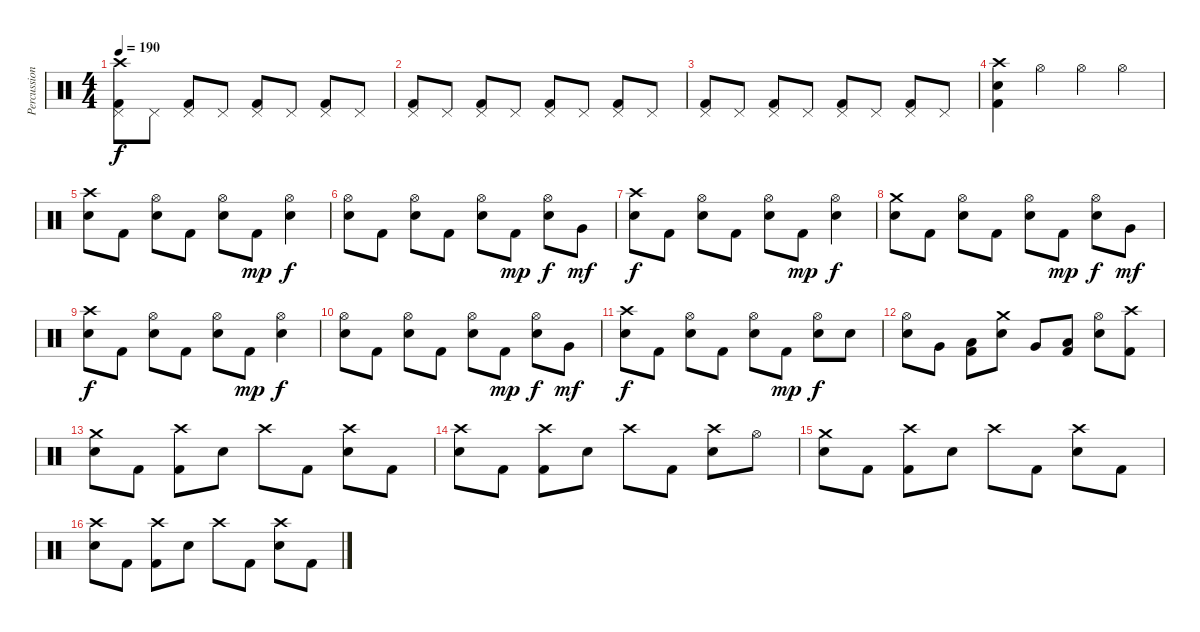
\track ("Percussions" "Percussion") {instrument percussion}
\staff {score}
\articulation defaults
\ts (4 4)
\tempo 190
\clef neutral
\ks c
("Crash high (hit)" "Pedal Hi-Hat (hit)" "Kick (hit) 2").8{dy f} "Pedal Hi-Hat (hit)".8 ("Pedal Hi-Hat (hit)" "Kick (hit) 2").8 "Pedal Hi-Hat (hit)".8 ("Pedal Hi-Hat (hit)" "Kick (hit) 2").8 "Pedal Hi-Hat (hit)".8 ("Pedal Hi-Hat (hit)" "Kick (hit) 2").8 "Pedal Hi-Hat (hit)".8 |
("Pedal Hi-Hat (hit)" "Kick (hit) 2").8 "Pedal Hi-Hat (hit)".8 ("Pedal Hi-Hat (hit)" "Kick (hit) 2").8 "Pedal Hi-Hat (hit)".8 ("Pedal Hi-Hat (hit)" "Kick (hit) 2").8 "Pedal Hi-Hat (hit)".8 ("Pedal Hi-Hat (hit)" "Kick (hit) 2").8 "Pedal Hi-Hat (hit)".8 |
("Pedal Hi-Hat (hit)" "Kick (hit) 2").8 "Pedal Hi-Hat (hit)".8 ("Pedal Hi-Hat (hit)" "Kick (hit) 2").8 "Pedal Hi-Hat (hit)".8 ("Pedal Hi-Hat (hit)" "Kick (hit) 2").8 "Pedal Hi-Hat (hit)".8 ("Pedal Hi-Hat (hit)" "Kick (hit) 2").8 "Pedal Hi-Hat (hit)".8 |
("Crash high (hit)" "Kick (hit) 2" "Electric Snare (hit)").4 "Hi-Hat (open)".4 "Hi-Hat (open)".4 "Hi-Hat (open)".4 |
("Crash high (hit)" "Electric Snare (hit)").8 "Kick (hit) 2".8 ("Hi-Hat (open)" "Electric Snare (hit)").8 "Kick (hit) 2".8 ("Hi-Hat (open)" "Electric Snare (hit)").8 "Kick (hit) 2".8{dy mp} ("Electric Snare (hit)" "Hi-Hat (open)").4{dy f} |
("Hi-Hat (open)" "Electric Snare (hit)").8 "Kick (hit) 2".8 ("Hi-Hat (open)" "Electric Snare (hit)").8 "Kick (hit) 2".8 ("Hi-Hat (open)" "Electric Snare (hit)").8 "Kick (hit) 2".8{dy mp} ("Hi-Hat (open)" "Electric Snare (hit)").8{dy f} "Very Low Tom (hit)".8{dy mf} |
("Crash high (hit)" "Electric Snare (hit)").8{dy f} "Kick (hit) 2".8 ("Hi-Hat (open)" "Electric Snare (hit)").8 "Kick (hit) 2".8 ("Hi-Hat (open)" "Electric Snare (hit)").8 "Kick (hit) 2".8{dy mp} ("Electric Snare (hit)" "Hi-Hat (open)").4{dy f} |
("Crash medium (hit)" "Electric Snare (hit)").8 "Kick (hit) 2".8 ("Hi-Hat (open)" "Electric Snare (hit)").8 "Kick (hit) 2".8 ("Hi-Hat (open)" "Electric Snare (hit)").8 "Kick (hit) 2".8{dy mp} ("Hi-Hat (open)" "Electric Snare (hit)").8{dy f} "Very Low Tom (hit)".8{dy mf} |
("Crash high (hit)" "Electric Snare (hit)").8{dy f} "Kick (hit) 2".8 ("Hi-Hat (open)" "Electric Snare (hit)").8 "Kick (hit) 2".8 ("Hi-Hat (open)" "Electric Snare (hit)").8 "Kick (hit) 2".8{dy mp} ("Electric Snare (hit)" "Hi-Hat (open)").4{dy f} |
("Hi-Hat (open)" "Electric Snare (hit)").8 "Kick (hit) 2".8 ("Hi-Hat (open)" "Electric Snare (hit)").8 "Kick (hit) 2".8 ("Hi-Hat (open)" "Electric Snare (hit)").8 "Kick (hit) 2".8{dy mp} ("Hi-Hat (open)" "Electric Snare (hit)").8{dy f} "Very Low Tom (hit)".8{dy mf} |
("Crash high (hit)" "Electric Snare (hit)").8{dy f} "Kick (hit) 2".8 ("Hi-Hat (open)" "Electric Snare (hit)").8 "Kick (hit) 2".8 ("Hi-Hat (open)" "Electric Snare (hit)").8 "Kick (hit) 2".8{dy mp} ("Electric Snare (hit)" "Hi-Hat (open)").8{dy f} "Electric Snare (hit)".8 |
("Hi-Hat (open)" "Electric Snare (hit)").8 "Very Low Tom (hit)".8 ("Low Floor Tom (hit)" "Kick (hit) 2").8 ("Crash medium (hit)" "Electric Snare (hit)").8 "Very Low Tom (hit)".8 ("Low Floor Tom (hit)" "Kick (hit) 2").8 ("Hi-Hat (open)" "Electric Snare (hit)").8 ("Crash high (hit)" "Kick (hit) 2").8 |
("Crash medium (hit)" "Electric Snare (hit)").8 "Kick (hit) 2".8 ("Crash high (hit)" "Kick (hit) 2").8 "Electric Snare (hit)".8 "Crash high (hit)".8 "Kick (hit) 2".8 ("Crash high (hit)" "Electric Snare (hit)").8 "Kick (hit) 2".8 |
("Crash high (hit)" "Electric Snare (hit)").8 "Kick (hit) 2".8 ("Crash high (hit)" "Kick (hit) 2").8 "Electric Snare (hit)".8 "Crash high (hit)".8 "Kick (hit) 2".8 ("Crash high (hit)" "Electric Snare (hit)").8 "Hi-Hat (open)".8 |
("Crash medium (hit)" "Electric Snare (hit)").8 "Kick (hit) 2".8 ("Crash high (hit)" "Kick (hit) 2").8 "Electric Snare (hit)".8 "Crash high (hit)".8 "Kick (hit) 2".8 ("Crash high (hit)" "Electric Snare (hit)").8 "Kick (hit) 2".8 |
("Crash high (hit)" "Electric Snare (hit)").8 "Kick (hit) 2".8 ("Crash high (hit)" "Kick (hit) 2").8 "Electric Snare (hit)".8 "Crash high (hit)".8 "Kick (hit) 2".8 ("Crash high (hit)" "Electric Snare (hit)").8 "Kick (hit) 2".8
